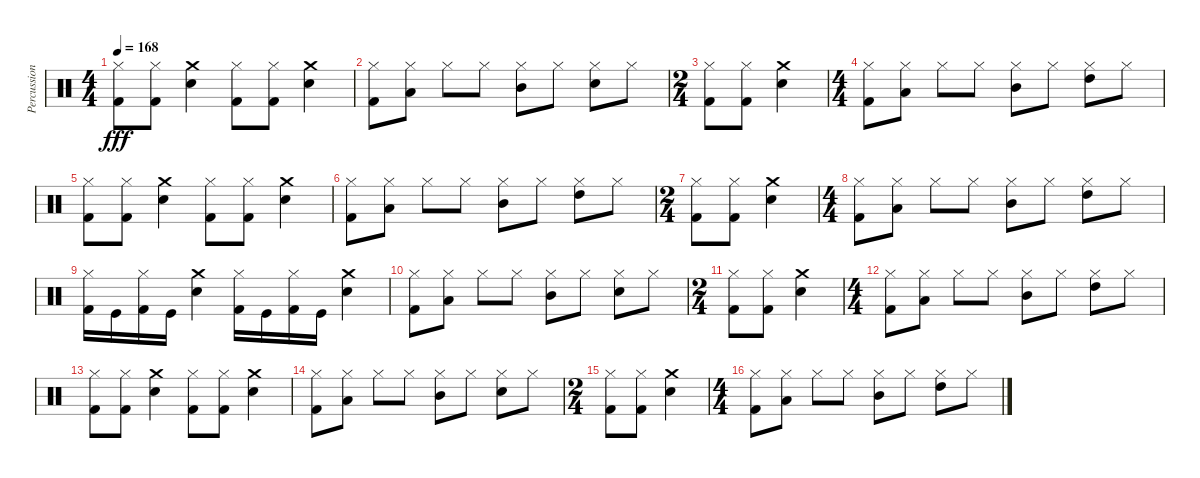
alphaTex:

\track ("Percussion" "Percussion") {instrument percussion}
\staff {score}
\articulation defaults
\ts (4 4)
\tempo 168
\clef neutral
\ks c
("Hi-Hat (closed)" "Kick (hit) 2").8{dy fff} ("Hi-Hat (closed)" "Kick (hit) 2").8 ("Snare (hit) 2" "Crash medium (hit)").4 ("Kick (hit) 2" "Hi-Hat (closed)").8 ("Kick (hit) 2" "Hi-Hat (closed)").8 ("Crash medium (hit)" "Snare (hit) 2").4 |
("Hi-Hat (closed)" "Kick (hit) 2").8 ("Low Tom (hit)" "Hi-Hat (closed)").8 "Hi-Hat (closed)".8 "Hi-Hat (closed)".8 ("Mid Tom (hit)" "Hi-Hat (closed)").8 "Hi-Hat (closed)".8 ("Snare (hit) 2" "Hi-Hat (closed)").8 "Hi-Hat (closed)".8 |
\ts (2 4)
("Kick (hit) 2" "Hi-Hat (closed)").8 ("Kick (hit) 2" "Hi-Hat (closed)").8 ("Snare (hit) 2" "Crash medium (hit)").4 |
\ts (4 4)
("Hi-Hat (closed)" "Kick (hit) 2").8 ("Low Tom (hit)" "Hi-Hat (closed)").8 "Hi-Hat (closed)".8 "Hi-Hat (closed)".8 ("Mid Tom (hit)" "Hi-Hat (closed)").8 "Hi-Hat (closed)".8 ("Hi-Hat (closed)" "High Tom (hit)").8 "Hi-Hat (closed)".8 |
("Hi-Hat (closed)" "Kick (hit) 2").8 ("Hi-Hat (closed)" "Kick (hit) 2").8 ("Snare (hit) 2" "Crash medium (hit)").4 ("Kick (hit) 2" "Hi-Hat (closed)").8 ("Kick (hit) 2" "Hi-Hat (closed)").8 ("Crash medium (hit)" "Snare (hit) 2").4 |
("Hi-Hat (closed)" "Kick (hit) 2").8 ("Low Tom (hit)" "Hi-Hat (closed)").8 "Hi-Hat (closed)".8 "Hi-Hat (closed)".8 ("Mid Tom (hit)" "Hi-Hat (closed)").8 "Hi-Hat (closed)".8 ("Hi-Hat (closed)" "High Tom (hit)").8 "Hi-Hat (closed)".8 |
\ts (2 4)
("Kick (hit) 2" "Hi-Hat (closed)").8 ("Kick (hit) 2" "Hi-Hat (closed)").8 ("Snare (hit) 2" "Crash medium (hit)").4 |
\ts (4 4)
("Hi-Hat (closed)" "Kick (hit) 2").8 ("Low Tom (hit)" "Hi-Hat (closed)").8 "Hi-Hat (closed)".8 "Hi-Hat (closed)".8 ("Mid Tom (hit)" "Hi-Hat (closed)").8 "Hi-Hat (closed)".8 ("Hi-Hat (closed)" "High Tom (hit)").8 "Hi-Hat (closed)".8 |
("Kick (hit) 2" "Hi-Hat (closed)").16 "Kick (hit)".16 ("Kick (hit) 2" "Hi-Hat (closed)").16 "Kick (hit)".16 ("Snare (hit) 2" "Crash medium (hit)").4 ("Kick (hit) 2" "Hi-Hat (closed)").16 "Kick (hit)".16 ("Kick (hit) 2" "Hi-Hat (closed)").16 "Kick (hit)".16 ("Crash medium (hit)" "Snare (hit) 2").4 |
("Hi-Hat (closed)" "Kick (hit) 2").8 ("Low Tom (hit)" "Hi-Hat (closed)").8 "Hi-Hat (closed)".8 "Hi-Hat (closed)".8 ("Mid Tom (hit)" "Hi-Hat (closed)").8 "Hi-Hat (closed)".8 ("Snare (hit) 2" "Hi-Hat (closed)").8 "Hi-Hat (closed)".8 |
\ts (2 4)
("Kick (hit) 2" "Hi-Hat (closed)").8 ("Kick (hit) 2" "Hi-Hat (closed)").8 ("Snare (hit) 2" "Crash medium (hit)").4 |
\ts (4 4)
("Hi-Hat (closed)" "Kick (hit) 2").8 ("Low Tom (hit)" "Hi-Hat (closed)").8 "Hi-Hat (closed)".8 "Hi-Hat (closed)".8 ("Mid Tom (hit)" "Hi-Hat (closed)").8 "Hi-Hat (closed)".8 ("Hi-Hat (closed)" "High Tom (hit)").8 "Hi-Hat (closed)".8 |
("Hi-Hat (closed)" "Kick (hit) 2").8 ("Hi-Hat (closed)" "Kick (hit) 2").8 ("Snare (hit) 2" "Crash medium (hit)").4 ("Kick (hit) 2" "Hi-Hat (closed)").8 ("Kick (hit) 2" "Hi-Hat (closed)").8 ("Crash medium (hit)" "Snare (hit) 2").4 |
("Hi-Hat (closed)" "Kick (hit) 2").8 ("Low Tom (hit)" "Hi-Hat (closed)").8 "Hi-Hat (closed)".8 "Hi-Hat (closed)".8 ("Mid Tom (hit)" "Hi-Hat (closed)").8 "Hi-Hat (closed)".8 ("Snare (hit) 2" "Hi-Hat (closed)").8 "Hi-Hat (closed)".8 |
\ts (2 4)
("Kick (hit) 2" "Hi-Hat (closed)").8 ("Kick (hit) 2" "Hi-Hat (closed)").8 ("Snare (hit) 2" "Crash medium (hit)").4 |
\ts (4 4)
("Hi-Hat (closed)" "Kick (hit) 2").8 ("Low Tom (hit)" "Hi-Hat (closed)").8 "Hi-Hat (closed)".8 "Hi-Hat (closed)".8 ("Mid Tom (hit)" "Hi-Hat (closed)").8 "Hi-Hat (closed)".8 ("Hi-Hat (closed)" "High Tom (hit)").8 "Hi-Hat (closed)".8
